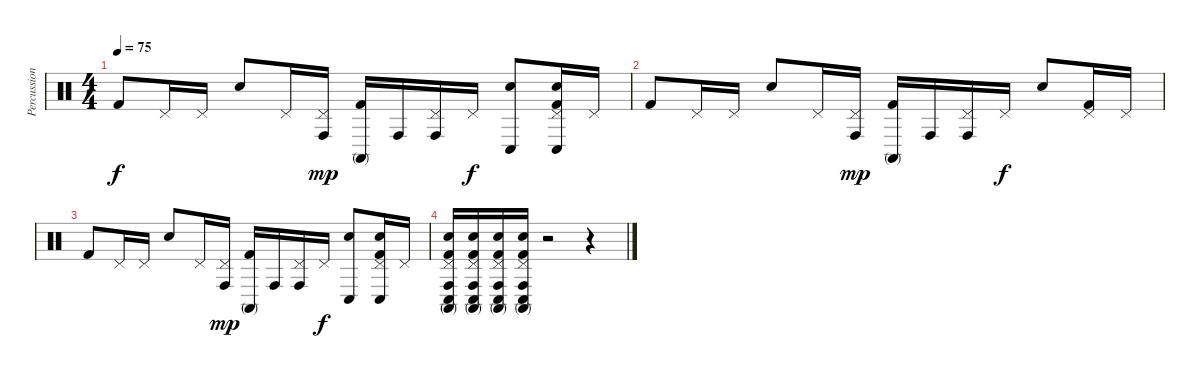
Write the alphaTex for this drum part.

\track ("Percussion" "Percussion") {instrument percussion}
\staff {score}
\articulation defaults
\ts (4 4)
\tempo 75
\clef neutral
\ks c "Kick (hit) 2".8{dy f} "Pedal Hi-Hat (hit)".16 "Pedal Hi-Hat (hit)".16 "Snare (hit) 2".8 "Pedal Hi-Hat (hit)".16
("Pedal Hi-Hat (hit)" "Conga high (hit)").16{dy mp} ("Conga high (mute)" "Kick (hit) 2").16 "Conga high (hit)".16 ("Pedal Hi-Hat (hit)" "Conga high (hit)").16 "Pedal Hi-Hat (hit)".16{dy f} ("Snare (hit) 2" "Conga low (hit)").8 ("Pedal Hi-Hat (hit)" "Snare (hit) 2" "Conga low (hit)" "Kick (hit) 2").16 "Pedal Hi-Hat (hit)".16 |
"Kick (hit) 2".8 "Pedal Hi-Hat (hit)".16 "Pedal Hi-Hat (hit)".16 "Snare (hit) 2".8 "Pedal Hi-Hat (hit)".16 ("Pedal Hi-Hat (hit)" "Conga high (hit)").16{dy mp} ("Conga high (mute)" "Kick (hit) 2").16 "Conga high (hit)".16 ("Pedal Hi-Hat (hit)" "Conga high (hit)").16 "Pedal Hi-Hat (hit)".16{dy f} "Snare (hit) 2".8 ("Pedal Hi-Hat (hit)" "Kick (hit) 2").16 "Pedal Hi-Hat (hit)".16 |
"Kick (hit) 2".8 "Pedal Hi-Hat (hit)".16 "Pedal Hi-Hat (hit)".16 "Snare (hit) 2".8 "Pedal Hi-Hat (hit)".16 ("Pedal Hi-Hat (hit)" "Conga high (hit)").16{dy mp} ("Conga high (mute)" "Kick (hit) 2").16 "Conga high (hit)".16 ("Pedal Hi-Hat (hit)" "Conga high (hit)").16 "Pedal Hi-Hat (hit)".16{dy f} ("Snare (hit) 2" "Conga low (hit)").8 ("Pedal Hi-Hat (hit)" "Snare (hit) 2" "Conga low (hit)" "Kick (hit) 2").16 "Pedal Hi-Hat (hit)".16 |
("Pedal Hi-Hat (hit)" "Snare (hit) 2" "Conga low (hit)" "Conga high (mute)" "Conga high (hit)" "Kick (hit) 2").16 ("Pedal Hi-Hat (hit)" "Snare (hit) 2" "Conga low (hit)" "Conga high (mute)" "Conga high (hit)" "Kick (hit) 2").16 ("Pedal Hi-Hat (hit)" "Snare (hit) 2" "Conga low (hit)" "Conga high (mute)" "Conga high (hit)" "Kick (hit) 2").16 ("Pedal Hi-Hat (hit)" "Snare (hit) 2" "Conga low (hit)" "Conga high (mute)" "Conga high (hit)" "Kick (hit) 2").16 r.2 r.4
